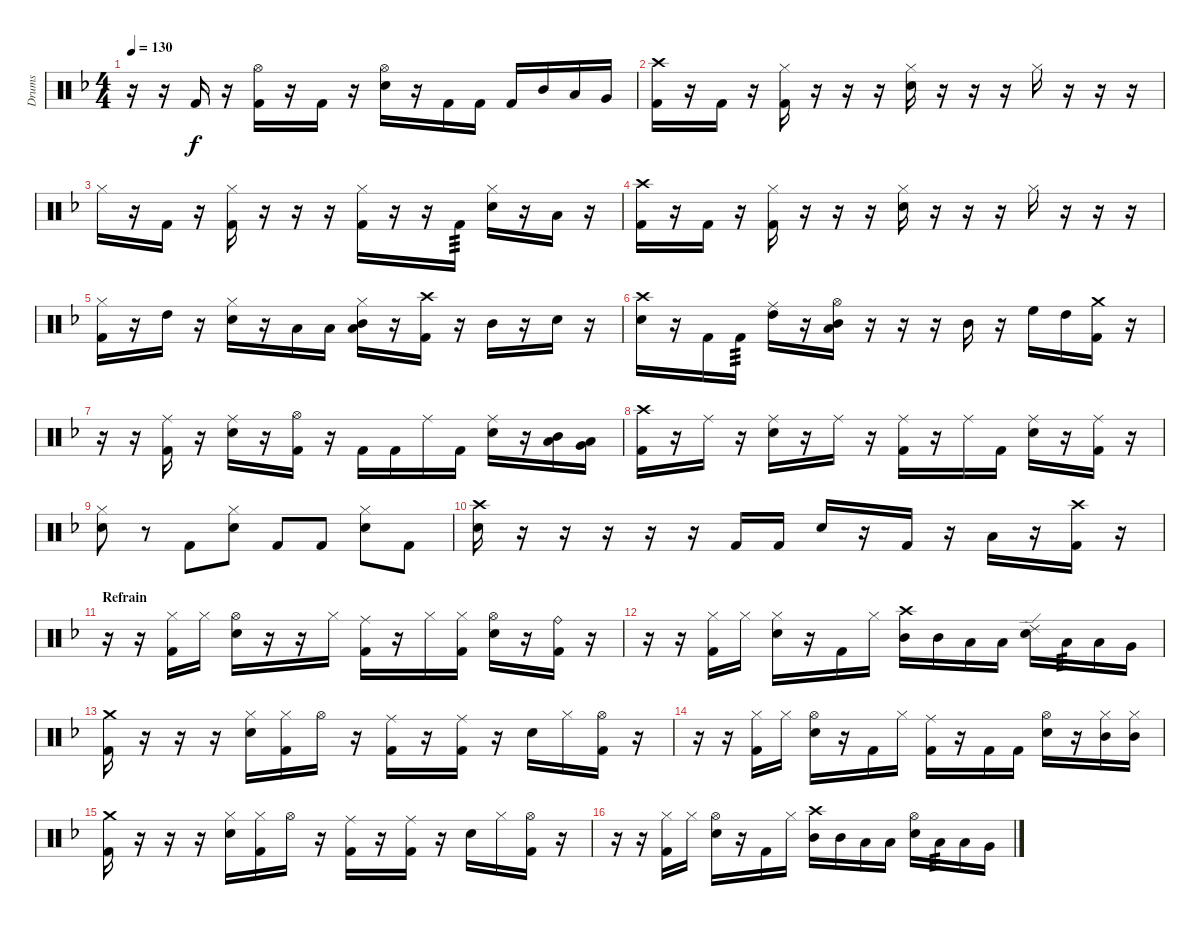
\track ("Drums" "Drums") {instrument percussion}
\staff {score}
\articulation defaults
\ts (4 4)
\tempo 130
\clef neutral
\ks dminor
r.16{dy f} r.16 "Kick (hit) 2".16 r.16 ("Kick (hit) 2" "Hi-Hat (open)").16 r.16 "Kick (hit) 2".16 r.16 ("Snare (hit) 2" "Hi-Hat (open)").16 r.16 "Kick (hit) 2".16 "Kick (hit) 2".16 "Kick (hit) 2".16 "Mid Tom (hit)".16 "Low Tom (hit)".16 "Very Low Tom (hit)".16 |
("Kick (hit) 2" "Crash high (hit)").16 r.16 "Kick (hit) 2".16 r.16 ("Kick (hit) 2" "Hi-Hat (closed)").16 r.16 r.16 r.16 ("Snare (hit) 2" "Hi-Hat (closed)").16 r.16 r.16 r.16 "Hi-Hat (closed)".16 r.16 r.16 r.16 |
"Hi-Hat (closed)".16 r.16 "Kick (hit) 2".16 r.16 ("Kick (hit) 2" "Hi-Hat (closed)").16 r.16 r.16 r.16 ("Kick (hit) 2" "Hi-Hat (closed)").16 r.16 r.16 "Kick (hit) 2".16{tp 3} ("Snare (hit) 2" "Hi-Hat (closed)").16 r.16 "Low Tom (hit)".16 r.16 |
("Kick (hit) 2" "Crash high (hit)").16 r.16 "Kick (hit) 2".16 r.16 ("Kick (hit) 2" "Hi-Hat (closed)").16 r.16 r.16 r.16 ("Snare (hit) 2" "Hi-Hat (closed)").16 r.16 r.16 r.16 "Hi-Hat (closed)".16 r.16 r.16 r.16 |
("Kick (hit) 2" "Hi-Hat (closed)").16 r.16 "High Tom (hit)".16 r.16 ("Snare (hit) 2" "Hi-Hat (closed)").16 r.16 "Low Tom (hit)".16 "Low Tom (hit)".16 ("Low Tom (hit)" "Mid Tom (hit)" "Hi-Hat (closed)").16 r.16 ("Crash high (hit)" "Kick (hit) 2").16 r.16 "Mid Tom (hit)".16 r.16 "Snare (hit) 2".16 r.16 |
("Crash high (hit)" "Snare (hit) 2").16 r.16 "Kick (hit) 2".16 "Kick (hit) 2".16{tp 3} ("High Tom (hit)" "Ride (middle)").16 r.16 ("Mid Tom (hit)" "Low Tom (hit)" "Hi-Hat (open)").16 r.16 r.16 r.16 "Mid Tom (hit)".16 r.16 "High Floor Tom (hit)".16 "High Tom (hit)".16 ("Crash medium (hit)" "Kick (hit) 2").16 r.16 |
r.16 r.16 ("Kick (hit) 2" "Ride (middle)").16 r.16 ("Snare (hit) 2" "Ride (middle)").16 r.16 ("Kick (hit) 2" "Hi-Hat (open)").16 r.16 "Kick (hit) 2".16 "Kick (hit) 2".16 "Ride (middle)".16 "Kick (hit) 2".16 ("Ride (middle)" "Snare (hit) 2").16 r.16 ("Mid Tom (hit)" "Low Tom (hit)").16 ("Low Tom (hit)" "Very Low Tom (hit)").16 |
("Crash high (hit)" "Kick (hit) 2").16 r.16 "Ride (middle)".16 r.16 ("Snare (hit) 2" "Ride (middle)").16 r.16 "Ride (middle)".16 r.16 ("Ride (middle)" "Kick (hit) 2").16 r.16 "Ride (middle)".16 "Kick (hit) 2".16 ("Snare (hit) 2" "Ride (middle)").16 r.16 ("Ride (middle)" "Kick (hit) 2").16 r.16 |
("Snare (hit) 2" "Hi-Hat (closed)").8 r.8 "Kick (hit) 2".8 ("Snare (hit) 2" "Hi-Hat (closed)").8 "Kick (hit) 2".8 "Kick (hit) 2".8 ("Snare (hit) 2" "Hi-Hat (closed)").8 "Kick (hit) 2".8 |
("Crash high (hit)" "Snare (hit) 2").16 r.16 r.16 r.16 r.16 r.16 "Kick (hit) 2".16 "Kick (hit) 2".16 "Snare (hit) 2".16 r.16 "Kick (hit) 2".16 r.16 "Low Tom (hit)".16 r.16 ("Crash high (hit)" "Kick (hit) 2").16 r.16 |
\section ("" "Refrain")
r.16 r.16 ("Kick (hit) 2" "Hi-Hat (closed)").16 "Hi-Hat (closed)".16 ("Snare (hit) 2" "Hi-Hat (open)").16 r.16 r.16 "Hi-Hat (closed)".16 ("Kick (hit) 2" "Ride (middle)").16 r.16 "Hi-Hat (closed)".16 ("Kick (hit) 2" "Hi-Hat (closed)").16 ("Snare (hit) 2" "Hi-Hat (open)").16 r.16 ("Kick (hit) 2" "Ride (bell)").16 r.16 |
r.16 r.16 ("Kick (hit) 2" "Hi-Hat (closed)").16 "Hi-Hat (closed)".16 ("Snare (hit) 2" "Hi-Hat (closed)").16 r.16 "Kick (hit) 2".16 "Hi-Hat (closed)".16 ("Mid Tom (hit)" "Crash high (hit)").16 "Mid Tom (hit)".16 "Low Tom (hit)".16 "Low Tom (hit)".16 ("Snare (hit) 2" "Ride (edge) 2").16 "Low Tom (hit)".16{tp 3} "Low Tom (hit)".16 "Very Low Tom (hit)".16 |
("Kick (hit) 2" "Crash medium (hit)").16 r.16 r.16 r.16 ("Snare (hit) 2" "Hi-Hat (closed)").16 ("Kick (hit) 2" "Hi-Hat (closed)").16 "Hi-Hat (open)".16 r.16 ("Kick (hit) 2" "Ride (middle)").16 r.16 ("Kick (hit) 2" "Ride (middle)").16 r.16 "Snare (hit) 2".16 "Hi-Hat (closed)".16 ("Kick (hit) 2" "Hi-Hat (open)").16 r.16 |
r.16 r.16 ("Kick (hit) 2" "Hi-Hat (closed)").16 "Hi-Hat (closed)".16 ("Snare (hit) 2" "Hi-Hat (open)").16 r.16 "Kick (hit) 2".16 "Hi-Hat (closed)".16 ("Kick (hit) 2" "Ride (middle)").16 r.16 "Kick (hit) 2".16 "Kick (hit) 2".16 ("Snare (hit) 2" "Hi-Hat (open)").16 r.16 ("Mid Tom (hit)" "Hi-Hat (closed)").16 ("Mid Tom (hit)" "Hi-Hat (closed)").16 |
("Kick (hit) 2" "Crash medium (hit)").16 r.16 r.16 r.16 ("Snare (hit) 2" "Hi-Hat (closed)").16 ("Kick (hit) 2" "Hi-Hat (closed)").16 "Hi-Hat (open)".16 r.16 ("Kick (hit) 2" "Ride (middle)").16 r.16 ("Kick (hit) 2" "Ride (middle)").16 r.16 "Snare (hit) 2".16 "Hi-Hat (closed)".16 ("Kick (hit) 2" "Hi-Hat (open)").16 r.16 |
r.16 r.16 ("Kick (hit) 2" "Hi-Hat (closed)").16 "Hi-Hat (closed)".16 ("Snare (hit) 2" "Hi-Hat (open)").16 r.16 "Kick (hit) 2".16 "Hi-Hat (closed)".16 ("Mid Tom (hit)" "Crash high (hit)").16 "Mid Tom (hit)".16 "Low Tom (hit)".16 "Low Tom (hit)".16 ("Snare (hit) 2" "Hi-Hat (open)").16 "Low Tom (hit)".16{tp 3} "Low Tom (hit)".16 "Very Low Tom (hit)".16
